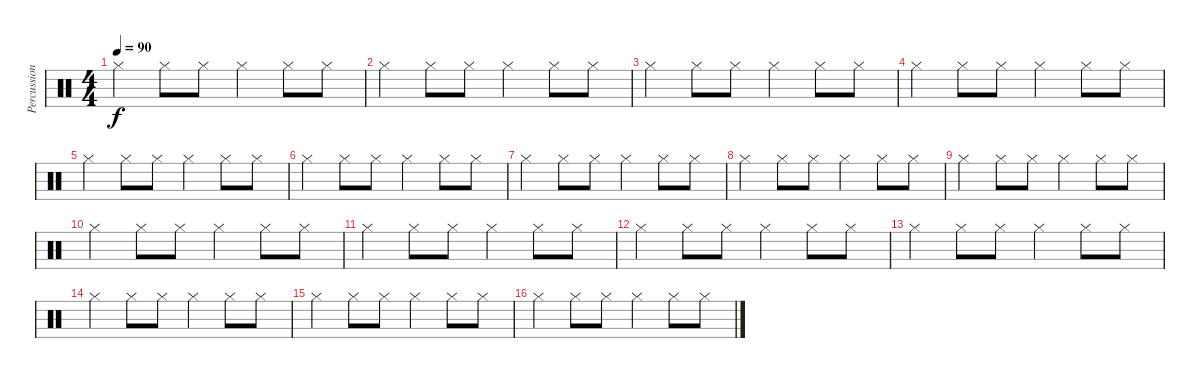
\track ("Percussion" "Percussion") {instrument percussion}
\staff {score}
\articulation defaults
\ts (4 4)
\tempo 90
\clef neutral
\ks c "Hi-Hat (closed)".4{dy f} "Hi-Hat (closed)".8 "Hi-Hat (closed)".8 "Hi-Hat (closed)".4 "Hi-Hat (closed)".8 "Hi-Hat (closed)".8
|
"Hi-Hat (closed)".4 "Hi-Hat (closed)".8 "Hi-Hat (closed)".8 "Hi-Hat (closed)".4 "Hi-Hat (closed)".8 "Hi-Hat (closed)".8 |
"Hi-Hat (closed)".4 "Hi-Hat (closed)".8 "Hi-Hat (closed)".8 "Hi-Hat (closed)".4 "Hi-Hat (closed)".8 "Hi-Hat (closed)".8 |
"Hi-Hat (closed)".4 "Hi-Hat (closed)".8 "Hi-Hat (closed)".8 "Hi-Hat (closed)".4 "Hi-Hat (closed)".8 "Hi-Hat (closed)".8 |
"Hi-Hat (closed)".4 "Hi-Hat (closed)".8 "Hi-Hat (closed)".8 "Hi-Hat (closed)".4 "Hi-Hat (closed)".8 "Hi-Hat (closed)".8 |
"Hi-Hat (closed)".4 "Hi-Hat (closed)".8 "Hi-Hat (closed)".8 "Hi-Hat (closed)".4 "Hi-Hat (closed)".8 "Hi-Hat (closed)".8 |
"Hi-Hat (closed)".4 "Hi-Hat (closed)".8 "Hi-Hat (closed)".8 "Hi-Hat (closed)".4 "Hi-Hat (closed)".8 "Hi-Hat (closed)".8 |
"Hi-Hat (closed)".4 "Hi-Hat (closed)".8 "Hi-Hat (closed)".8 "Hi-Hat (closed)".4 "Hi-Hat (closed)".8 "Hi-Hat (closed)".8 |
"Hi-Hat (closed)".4 "Hi-Hat (closed)".8 "Hi-Hat (closed)".8 "Hi-Hat (closed)".4 "Hi-Hat (closed)".8 "Hi-Hat (closed)".8 |
"Hi-Hat (closed)".4 "Hi-Hat (closed)".8 "Hi-Hat (closed)".8 "Hi-Hat (closed)".4 "Hi-Hat (closed)".8 "Hi-Hat (closed)".8 |
"Hi-Hat (closed)".4 "Hi-Hat (closed)".8 "Hi-Hat (closed)".8 "Hi-Hat (closed)".4 "Hi-Hat (closed)".8 "Hi-Hat (closed)".8 |
"Hi-Hat (closed)".4 "Hi-Hat (closed)".8 "Hi-Hat (closed)".8 "Hi-Hat (closed)".4 "Hi-Hat (closed)".8 "Hi-Hat (closed)".8 |
"Hi-Hat (closed)".4 "Hi-Hat (closed)".8 "Hi-Hat (closed)".8 "Hi-Hat (closed)".4 "Hi-Hat (closed)".8 "Hi-Hat (closed)".8 |
"Hi-Hat (closed)".4 "Hi-Hat (closed)".8 "Hi-Hat (closed)".8 "Hi-Hat (closed)".4 "Hi-Hat (closed)".8 "Hi-Hat (closed)".8 |
"Hi-Hat (closed)".4 "Hi-Hat (closed)".8 "Hi-Hat (closed)".8 "Hi-Hat (closed)".4 "Hi-Hat (closed)".8 "Hi-Hat (closed)".8 |
"Hi-Hat (closed)".4 "Hi-Hat (closed)".8 "Hi-Hat (closed)".8 "Hi-Hat (closed)".4 "Hi-Hat (closed)".8 "Hi-Hat (closed)".8
